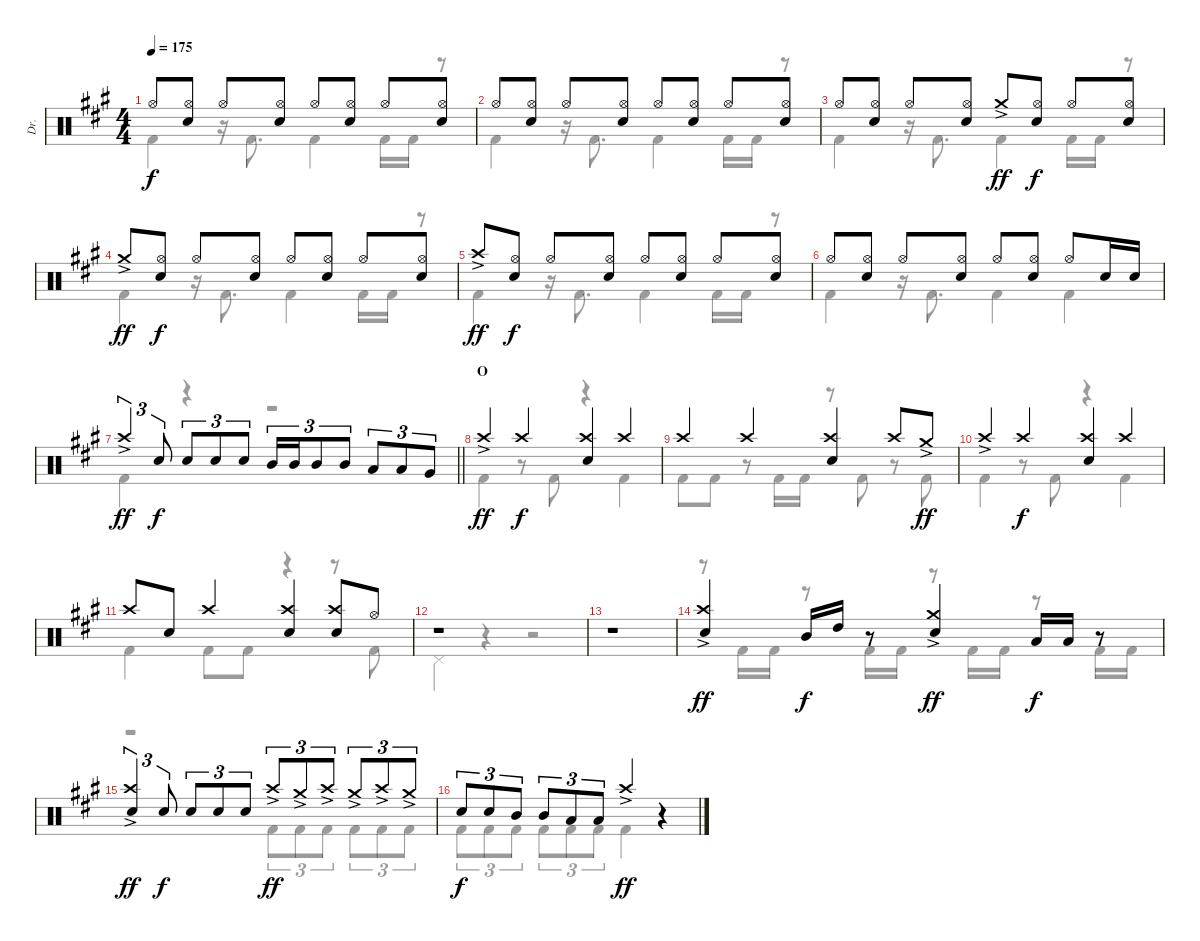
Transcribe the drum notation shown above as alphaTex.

\track ("Dr." "Dr.") {instrument percussion}
\staff {score}
\articulation defaults
\voice
\ts (4 4)
\tempo 175
\clef neutral
\ks f#minor "Hi-Hat (open)".8{dy f}
("Hi-Hat (open)" "Electric Snare (hit)").8 "Hi-Hat (open)".8 ("Hi-Hat (open)" "Electric Snare (hit)").8 "Hi-Hat (open)".8 ("Hi-Hat (open)" "Electric Snare (hit)").8 "Hi-Hat (open)".8 ("Hi-Hat (open)" "Electric Snare (hit)").8 |
"Hi-Hat (open)".8 ("Hi-Hat (open)" "Electric Snare (hit)").8 "Hi-Hat (open)".8 ("Hi-Hat (open)" "Electric Snare (hit)").8 "Hi-Hat (open)".8 ("Hi-Hat (open)" "Electric Snare (hit)").8 "Hi-Hat (open)".8 ("Hi-Hat (open)" "Electric Snare (hit)").8 |
"Hi-Hat (open)".8 ("Hi-Hat (open)" "Electric Snare (hit)").8 "Hi-Hat (open)".8 ("Hi-Hat (open)" "Electric Snare (hit)").8 "Crash medium (hit)"{ac}.8{dy ff} ("Hi-Hat (open)" "Electric Snare (hit)").8{dy f} "Hi-Hat (open)".8 ("Hi-Hat (open)" "Electric Snare (hit)").8 |
"Crash medium (hit)"{ac}.8{dy ff} ("Hi-Hat (open)" "Electric Snare (hit)").8{dy f} "Hi-Hat (open)".8 ("Hi-Hat (open)" "Electric Snare (hit)").8 "Hi-Hat (open)".8 ("Hi-Hat (open)" "Electric Snare (hit)").8 "Hi-Hat (open)".8 ("Hi-Hat (open)" "Electric Snare (hit)").8 |
"Crash high (hit)"{ac}.8{dy ff} ("Hi-Hat (open)" "Electric Snare (hit)").8{dy f} "Hi-Hat (open)".8 ("Hi-Hat (open)" "Electric Snare (hit)").8 "Hi-Hat (open)".8 ("Hi-Hat (open)" "Electric Snare (hit)").8 "Hi-Hat (open)".8 ("Hi-Hat (open)" "Electric Snare (hit)").8 |
"Hi-Hat (open)".8 ("Hi-Hat (open)" "Electric Snare (hit)").8 "Hi-Hat (open)".8 ("Hi-Hat (open)" "Electric Snare (hit)").8 "Hi-Hat (open)".8 ("Hi-Hat (open)" "Electric Snare (hit)").8 "Hi-Hat (open)".8 "Electric Snare (hit)".16 "Electric Snare (hit)".16 |
\barLineRight lightlight "Crash high (hit)"{ac}.4{tu (3 2) dy ff} "Electric Snare (hit)".8{tu (3 2) dy f} "Electric Snare (hit)".8{tu (3 2)} "Electric Snare (hit)".8{tu (3 2)} "Electric Snare (hit)".8{tu (3 2)} "Mid Tom (hit)".16{tu (3 2)} "Mid Tom (hit)".16{tu (3 2)} "Mid Tom (hit)".8{tu (3 2)} "Mid Tom (hit)".8{tu (3 2)} "Low Tom (hit)".8{tu (3 2)} "Low Tom (hit)".8{tu (3 2)} "Very Low Tom (hit)".8{tu (3 2)}
|
\section ("" "O")
"Crash high (hit)"{ac}.4{dy ff} "Crash high (hit)".4{dy f} ("Crash high (hit)" "Electric Snare (hit)").4 "Crash high (hit)".4 |
"Crash high (hit)".4 "Crash high (hit)".4 ("Crash high (hit)" "Electric Snare (hit)").4 "Crash high (hit)".8 "Crash medium (hit)"{ac}.8{dy ff} |
"Crash high (hit)"{ac}.4 "Crash high (hit)".4{dy f} ("Crash high (hit)" "Electric Snare (hit)").4 "Crash high (hit)".4 |
"Crash high (hit)".8 "Electric Snare (hit)".8 "Crash high (hit)".4 ("Crash high (hit)" "Electric Snare (hit)").4 ("Crash high (hit)" "Electric Snare (hit)").8 "Hi-Hat (open)".8 |
r.1 |
r.1 |
("Crash high (hit)"{ac} "Electric Snare (hit)").4{dy ff} "Mid Tom (hit)".16{dy f} "High Tom (hit)".16 r.8 ("Crash medium (hit)"{ac} "Electric Snare (hit)").4{dy ff} "Low Tom (hit)".16{dy f} "Low Tom (hit)".16 r.8 |
("Crash high (hit)"{ac} "Electric Snare (hit)").4{tu (3 2) dy ff} "Electric Snare (hit)".8{tu (3 2) dy f} "Electric Snare (hit)".8{tu (3 2)} "Electric Snare (hit)".8{tu (3 2)} "Electric Snare (hit)".8{tu (3 2)} "Crash high (hit)"{ac}.8{tu (3 2) dy ff} "Crash medium (hit)"{ac}.8{tu (3 2)} "Crash high (hit)"{ac}.8{tu (3 2)} "Crash medium (hit)"{ac}.8{tu (3 2)} "Crash high (hit)"{ac}.8{tu (3 2)} "Crash medium (hit)"{ac}.8{tu (3 2)} |
"Electric Snare (hit)".8{tu (3 2) dy f} "Electric Snare (hit)".8{tu (3 2)} "Mid Tom (hit)".8{tu (3 2)} "Mid Tom (hit)".8{tu (3 2)} "Low Tom (hit)".8{tu (3 2)} "Low Tom (hit)".8{tu (3 2)} "Crash high (hit)"{ac}.4{dy ff} r.4
\voice
\clef neutral
\ottava regular
\simile none
\ks f#minor "Kick (hit) 2".4{dy f}
r.16 "Kick (hit) 2".8{d} "Kick (hit) 2".4 "Kick (hit) 2".16 "Kick (hit) 2".16 r.8 |
"Kick (hit) 2".4 r.16 "Kick (hit) 2".8{d} "Kick (hit) 2".4 "Kick (hit) 2".16 "Kick (hit) 2".16 r.8 |
"Kick (hit) 2".4 r.16 "Kick (hit) 2".8{d} "Kick (hit) 2".4 "Kick (hit) 2".16 "Kick (hit) 2".16 r.8 |
"Kick (hit) 2".4 r.16 "Kick (hit) 2".8{d} "Kick (hit) 2".4 "Kick (hit) 2".16 "Kick (hit) 2".16 r.8 |
"Kick (hit) 2".4 r.16 "Kick (hit) 2".8{d} "Kick (hit) 2".4 "Kick (hit) 2".16 "Kick (hit) 2".16 r.8 |
"Kick (hit) 2".4 r.16 "Kick (hit) 2".8{d} "Kick (hit) 2".4 "Kick (hit) 2".4 |
\barLineRight lightlight "Kick (hit) 2".4
r.4 r.2 |
"Kick (hit) 2".4 r.8 "Kick (hit) 2".8 r.4 "Kick (hit) 2".4 |
"Kick (hit) 2".8 "Kick (hit) 2".8 r.8 "Kick (hit) 2".16 "Kick (hit) 2".16 r.8 "Kick (hit) 2".8 r.8 "Kick (hit) 2".8 |
"Kick (hit) 2".4 r.8 "Kick (hit) 2".8 r.4 "Kick (hit) 2".4 |
"Kick (hit) 2".4 "Kick (hit) 2".8 "Kick (hit) 2".8 r.4 r.8 "Kick (hit) 2".8 |
"Pedal Hi-Hat (hit)".4 r.4 r.2 |
r.1 |
r.8 "Kick (hit) 2".16 "Kick (hit) 2".16 r.8 "Kick (hit) 2".16 "Kick (hit) 2".16 r.8 "Kick (hit) 2".16 "Kick (hit) 2".16 r.8 "Kick (hit) 2".16 "Kick (hit) 2".16 |
r.2 "Kick (hit) 2".8{tu (3 2)} "Kick (hit) 2".8{tu (3 2)} "Kick (hit) 2".8{tu (3 2)} "Kick (hit) 2".8{tu (3 2)} "Kick (hit) 2".8{tu (3 2)} "Kick (hit) 2".8{tu (3 2)} |
"Kick (hit) 2".8{tu (3 2)} "Kick (hit) 2".8{tu (3 2)} "Kick (hit) 2".8{tu (3 2)} "Kick (hit) 2".8{tu (3 2)} "Kick (hit) 2".8{tu (3 2)} "Kick (hit) 2".8{tu (3 2)} "Kick (hit) 2".4 r.4
